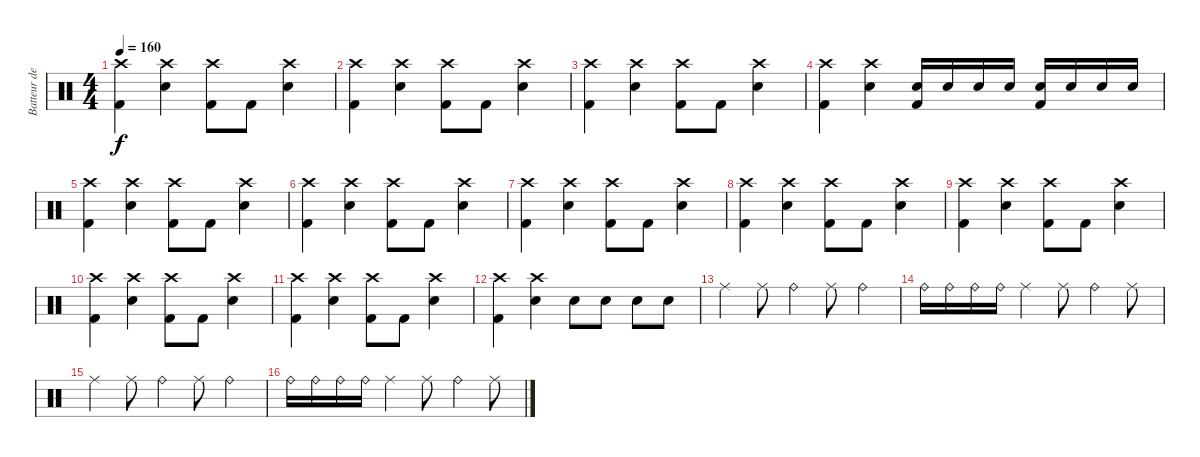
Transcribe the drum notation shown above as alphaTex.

\track ("Batteur de G.C" "Batteur de") {instrument percussion}
\staff {score}
\articulation defaults
\ts (4 4)
\tempo 160
\clef neutral
\ks c
("Crash high (hit)" "Kick (hit) 2").4{dy f} ("Crash high (hit)" "Electric Snare (hit)").4 ("Crash high (hit)" "Kick (hit) 2").8 "Kick (hit) 2".8 ("Crash high (hit)" "Electric Snare (hit)").4 |
("Crash high (hit)" "Kick (hit) 2").4 ("Crash high (hit)" "Electric Snare (hit)").4 ("Crash high (hit)" "Kick (hit) 2").8 "Kick (hit) 2".8 ("Crash high (hit)" "Electric Snare (hit)").4 |
("Crash high (hit)" "Kick (hit) 2").4 ("Crash high (hit)" "Electric Snare (hit)").4 ("Crash high (hit)" "Kick (hit) 2").8 "Kick (hit) 2".8 ("Crash high (hit)" "Electric Snare (hit)").4 |
("Crash high (hit)" "Kick (hit) 2").4 ("Crash high (hit)" "Electric Snare (hit)").4 ("Electric Snare (hit)" "Kick (hit) 2").16 "Electric Snare (hit)".16 "Electric Snare (hit)".16 "Electric Snare (hit)".16 ("Electric Snare (hit)" "Kick (hit) 2").16 "Electric Snare (hit)".16 "Electric Snare (hit)".16 "Electric Snare (hit)".16 |
("Crash high (hit)" "Kick (hit) 2").4 ("Crash high (hit)" "Electric Snare (hit)").4 ("Crash high (hit)" "Kick (hit) 2").8 "Kick (hit) 2".8 ("Crash high (hit)" "Electric Snare (hit)").4 |
("Crash high (hit)" "Kick (hit) 2").4 ("Crash high (hit)" "Electric Snare (hit)").4 ("Crash high (hit)" "Kick (hit) 2").8 "Kick (hit) 2".8 ("Crash high (hit)" "Electric Snare (hit)").4 |
("Crash high (hit)" "Kick (hit) 2").4 ("Crash high (hit)" "Electric Snare (hit)").4 ("Crash high (hit)" "Kick (hit) 2").8 "Kick (hit) 2".8 ("Crash high (hit)" "Electric Snare (hit)").4 |
("Crash high (hit)" "Kick (hit) 2").4 ("Crash high (hit)" "Electric Snare (hit)").4 ("Crash high (hit)" "Kick (hit) 2").8 "Kick (hit) 2".8 ("Crash high (hit)" "Electric Snare (hit)").4 |
("Crash high (hit)" "Kick (hit) 2").4 ("Crash high (hit)" "Electric Snare (hit)").4 ("Crash high (hit)" "Kick (hit) 2").8 "Kick (hit) 2".8 ("Crash high (hit)" "Electric Snare (hit)").4 |
("Crash high (hit)" "Kick (hit) 2").4 ("Crash high (hit)" "Electric Snare (hit)").4 ("Crash high (hit)" "Kick (hit) 2").8 "Kick (hit) 2".8 ("Crash high (hit)" "Electric Snare (hit)").4 |
("Crash high (hit)" "Kick (hit) 2").4 ("Crash high (hit)" "Electric Snare (hit)").4 ("Crash high (hit)" "Kick (hit) 2").8 "Kick (hit) 2".8 ("Crash high (hit)" "Electric Snare (hit)").4 |
("Crash high (hit)" "Kick (hit) 2").4 ("Crash high (hit)" "Electric Snare (hit)").4 "Electric Snare (hit)".8 "Electric Snare (hit)".8 "Electric Snare (hit)".8 "Electric Snare (hit)".8 |
"Ride (middle)".4 "Ride (middle)".8 "Ride (bell)".4 "Ride (middle)".8 "Ride (bell)".4 |
"Ride (bell)".16 "Ride (bell)".16 "Ride (bell)".16 "Ride (bell)".16 "Ride (middle)".4 "Ride (middle)".8 "Ride (bell)".4 "Ride (middle)".8 |
"Ride (middle)".4 "Ride (middle)".8 "Ride (bell)".4 "Ride (middle)".8 "Ride (bell)".4 |
"Ride (bell)".16 "Ride (bell)".16 "Ride (bell)".16 "Ride (bell)".16 "Ride (middle)".4 "Ride (middle)".8 "Ride (bell)".4 "Ride (middle)".8
